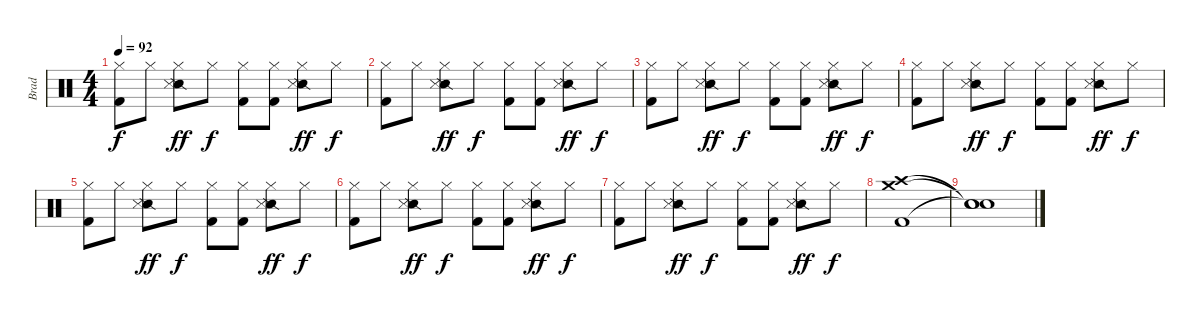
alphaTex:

\track ("Brad" "Brad") {instrument percussion}
\staff {score}
\articulation defaults
\ts (4 4)
\tempo 92
\clef neutral
\ks c
("Hi-Hat (closed)" "Kick (hit) 2").8{dy f} "Hi-Hat (closed)".8 ("Hi-Hat (closed)" "Snare (side stick) 2" "Snare (side stick) 3").8{dy ff} "Hi-Hat (closed)".8{dy f} ("Hi-Hat (closed)" "Kick (hit) 2").8 ("Hi-Hat (closed)" "Kick (hit) 2").8 ("Hi-Hat (closed)" "Snare (side stick) 2" "Snare (side stick) 3").8{dy ff} "Hi-Hat (closed)".8{dy f} |
("Hi-Hat (closed)" "Kick (hit) 2").8 "Hi-Hat (closed)".8 ("Hi-Hat (closed)" "Snare (side stick) 2" "Snare (side stick) 3").8{dy ff} "Hi-Hat (closed)".8{dy f} ("Hi-Hat (closed)" "Kick (hit) 2").8 ("Hi-Hat (closed)" "Kick (hit) 2").8 ("Hi-Hat (closed)" "Snare (side stick) 2" "Snare (side stick) 3").8{dy ff} "Hi-Hat (closed)".8{dy f} |
("Hi-Hat (closed)" "Kick (hit) 2").8 "Hi-Hat (closed)".8 ("Hi-Hat (closed)" "Snare (side stick) 2" "Snare (side stick) 3").8{dy ff} "Hi-Hat (closed)".8{dy f} ("Hi-Hat (closed)" "Kick (hit) 2").8 ("Hi-Hat (closed)" "Kick (hit) 2").8 ("Hi-Hat (closed)" "Snare (side stick) 2" "Snare (side stick) 3").8{dy ff} "Hi-Hat (closed)".8{dy f} |
("Hi-Hat (closed)" "Kick (hit) 2").8 "Hi-Hat (closed)".8 ("Hi-Hat (closed)" "Snare (side stick) 2" "Snare (side stick) 3").8{dy ff} "Hi-Hat (closed)".8{dy f} ("Hi-Hat (closed)" "Kick (hit) 2").8 ("Hi-Hat (closed)" "Kick (hit) 2").8 ("Hi-Hat (closed)" "Snare (side stick) 2" "Snare (side stick) 3").8{dy ff} "Hi-Hat (closed)".8{dy f} |
("Hi-Hat (closed)" "Kick (hit) 2").8 "Hi-Hat (closed)".8 ("Hi-Hat (closed)" "Snare (side stick) 2" "Snare (side stick) 3").8{dy ff} "Hi-Hat (closed)".8{dy f} ("Hi-Hat (closed)" "Kick (hit) 2").8 ("Hi-Hat (closed)" "Kick (hit) 2").8 ("Hi-Hat (closed)" "Snare (side stick) 2" "Snare (side stick) 3").8{dy ff} "Hi-Hat (closed)".8{dy f} |
("Hi-Hat (closed)" "Kick (hit) 2").8 "Hi-Hat (closed)".8 ("Hi-Hat (closed)" "Snare (side stick) 2" "Snare (side stick) 3").8{dy ff} "Hi-Hat (closed)".8{dy f} ("Hi-Hat (closed)" "Kick (hit) 2").8 ("Hi-Hat (closed)" "Kick (hit) 2").8 ("Hi-Hat (closed)" "Snare (side stick) 2" "Snare (side stick) 3").8{dy ff} "Hi-Hat (closed)".8{dy f} |
("Hi-Hat (closed)" "Kick (hit) 2").8 "Hi-Hat (closed)".8 ("Hi-Hat (closed)" "Snare (side stick) 2" "Snare (side stick) 3").8{dy ff} "Hi-Hat (closed)".8{dy f} ("Hi-Hat (closed)" "Kick (hit) 2").8 ("Hi-Hat (closed)" "Kick (hit) 2").8 ("Hi-Hat (closed)" "Snare (side stick) 2" "Snare (side stick) 3").8{dy ff} "Hi-Hat (closed)".8{dy f} |
("Crash high (hit)" "Crash medium (hit)" "Kick (hit) 2").1 |
("Snare (hit)"{t} "Snare (hit)"{t} "Snare (hit)"{t}).1
